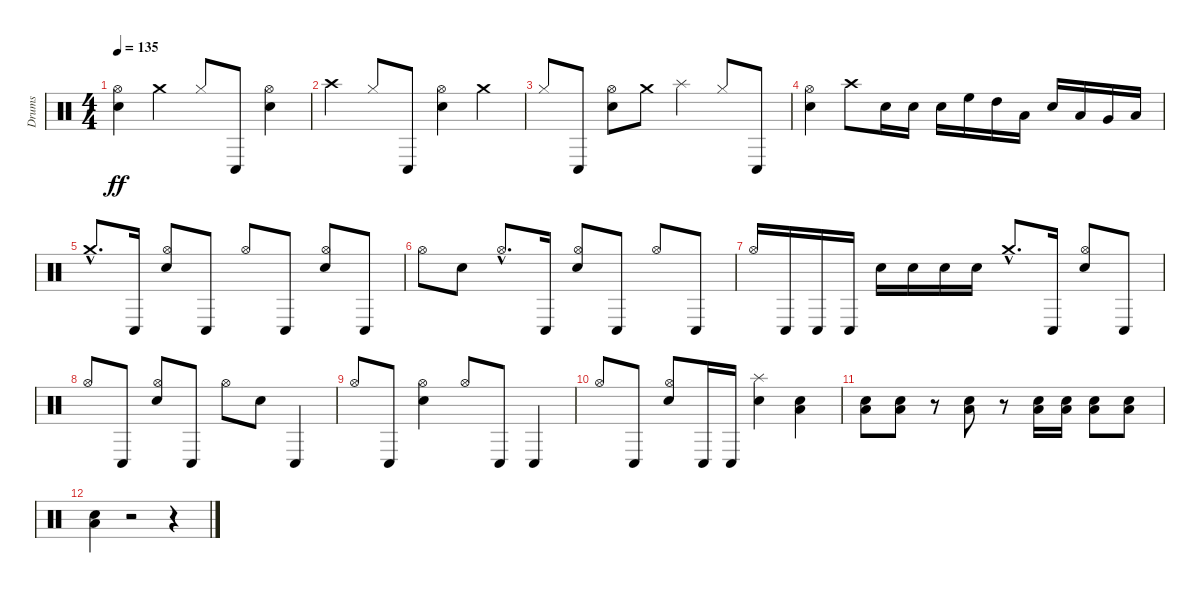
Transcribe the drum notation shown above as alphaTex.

\track ("Drums" "Drums") {instrument percussion}
\staff {score}
\articulation defaults
\ts (4 4)
\tempo 135
\clef neutral
\ks c
("Electric Snare (hit)" "Hi-Hat (open)").4{dy ff} "Crash medium (hit)".4 "Hi-Hat (closed)".8 "Conga low (hit)".8 ("Electric Snare (hit)" "Hi-Hat (open)").4 |
"Crash high (hit)".4 "Hi-Hat (closed)".8 "Conga low (hit)".8 ("Electric Snare (hit)" "Hi-Hat (open)").4 "Crash medium (hit)".4 |
"Hi-Hat (closed)".8 "Conga low (hit)".8 ("Electric Snare (hit)" "Hi-Hat (open)").8 "Crash medium (hit)".8 "Splash (hit)".4 "Hi-Hat (closed)".8 "Conga low (hit)".8 |
("Electric Snare (hit)" "Hi-Hat (open)").4 "Crash high (hit)".8 "Electric Snare (hit)".16 "Electric Snare (hit)".16 "Electric Snare (hit)".16 "High Floor Tom (hit)".16 "High Tom (hit)".16 "Low Tom (hit)".16 "Electric Snare (hit)".16 "Low Tom (hit)".16 "Very Low Tom (hit)".16 "Low Floor Tom (hit)".16 |
"Crash medium (hit)"{hac}.8{d} "Conga low (hit)".16 ("Electric Snare (hit)" "Hi-Hat (open)").8 "Conga low (hit)".8 "Hi-Hat (open)".8 "Conga low (hit)".8 ("Electric Snare (hit)" "Hi-Hat (open)").8 "Conga low (hit)".8 |
"Hi-Hat (open)".8 "Electric Snare (hit)".8 "Hi-Hat (open)"{hac}.8{d} "Conga low (hit)".16 ("Electric Snare (hit)" "Hi-Hat (open)").8 "Conga low (hit)".8 "Hi-Hat (open)".8 "Conga low (hit)".8 |
"Hi-Hat (open)".16 "Conga low (hit)".16 "Conga low (hit)".16 "Conga low (hit)".16 "Electric Snare (hit)".16 "Electric Snare (hit)".16 "Electric Snare (hit)".16 "Electric Snare (hit)".16 "Crash medium (hit)"{hac}.8{d} "Conga low (hit)".16 ("Electric Snare (hit)" "Hi-Hat (open)").8 "Conga low (hit)".8 |
"Hi-Hat (open)".8 "Conga low (hit)".8 ("Electric Snare (hit)" "Hi-Hat (open)").8 "Conga low (hit)".8 "Hi-Hat (open)".8 "Electric Snare (hit)".8 "Conga low (hit)".4 |
"Hi-Hat (open)".8 "Conga low (hit)".8 ("Electric Snare (hit)" "Hi-Hat (open)").4 "Hi-Hat (open)".8 "Conga low (hit)".8 "Conga low (hit)".4 |
"Hi-Hat (open)".8 "Conga low (hit)".8 ("Electric Snare (hit)" "Hi-Hat (open)").8 "Conga low (hit)".16 "Conga low (hit)".16 ("Electric Snare (hit)" "Splash (hit)").4 ("Electric Snare (hit)" "Low Tom (hit)").4 |
("Electric Snare (hit)" "Low Tom (hit)").8 ("Electric Snare (hit)" "Low Tom (hit)").8 r.8 ("Electric Snare (hit)" "Low Tom (hit)").8 r.8 ("Electric Snare (hit)" "Low Tom (hit)").16 ("Electric Snare (hit)" "Low Tom (hit)").16 ("Electric Snare (hit)" "Low Tom (hit)").8 ("Electric Snare (hit)" "Low Tom (hit)").8 |
("Electric Snare (hit)" "Low Tom (hit)").4 r.2 r.4
